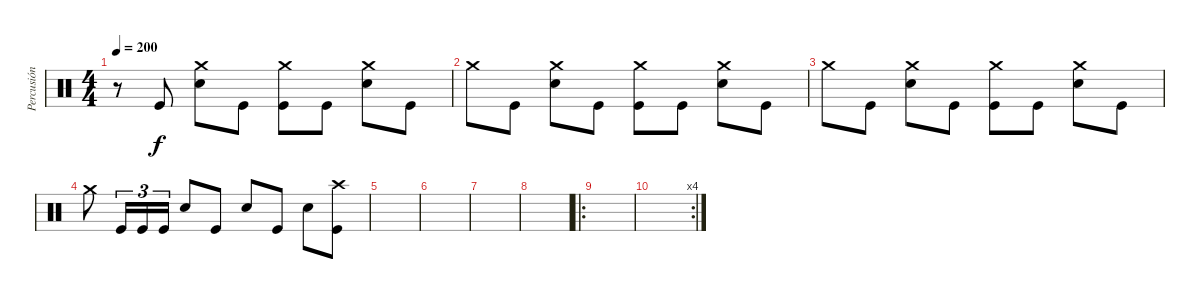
\track ("Percusión" "Percusión") {instrument percussion}
\staff {score}
\articulation defaults
\ts (4 4)
\tempo 200
\clef neutral
\ks c
r.8{dy f} "Kick (hit)".8 ("Electric Snare (hit)" "Crash medium (hit)").8 "Kick (hit)".8 ("Crash medium (hit)" "Kick (hit)").8 "Kick (hit)".8 ("Electric Snare (hit)" "Crash medium (hit)").8 "Kick (hit)".8 |
"Crash medium (hit)".8 "Kick (hit)".8 ("Electric Snare (hit)" "Crash medium (hit)").8 "Kick (hit)".8 ("Crash medium (hit)" "Kick (hit)").8 "Kick (hit)".8 ("Electric Snare (hit)" "Crash medium (hit)").8 "Kick (hit)".8 |
"Crash medium (hit)".8 "Kick (hit)".8 ("Electric Snare (hit)" "Crash medium (hit)").8 "Kick (hit)".8 ("Crash medium (hit)" "Kick (hit)").8 "Kick (hit)".8 ("Electric Snare (hit)" "Crash medium (hit)").8 "Kick (hit)".8 |
"Crash medium (hit)".8 "Kick (hit)".16{tu (3 2)} "Kick (hit)".16{tu (3 2)} "Kick (hit)".16{tu (3 2)} "Electric Snare (hit)".8 "Kick (hit)".8 "Electric Snare (hit)".8 "Kick (hit)".8 "Electric Snare (hit)".8 ("Crash high (hit)" "Kick (hit)").8 |
|
|
|
|
\ro
|
\rc 4
